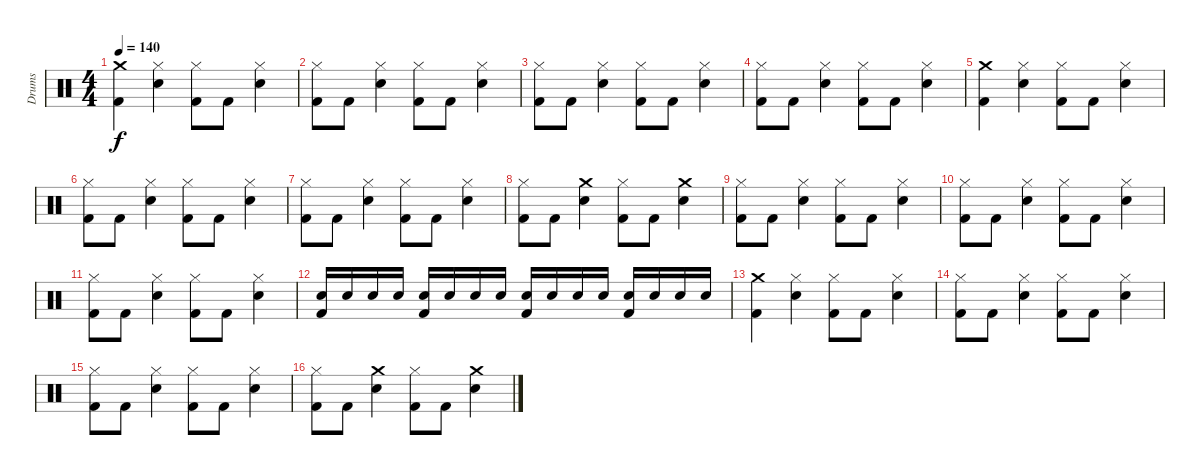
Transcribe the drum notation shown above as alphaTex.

\track ("Drums" "Drums") {instrument percussion}
\staff {score}
\articulation defaults
\ts (4 4)
\tempo 140
\clef neutral
\ks c
("Kick (hit) 2" "Crash medium (hit)").4{dy f} ("Hi-Hat (closed)" "Snare (hit) 2").4 ("Kick (hit) 2" "Hi-Hat (closed)").8 "Kick (hit) 2".8 ("Snare (hit) 2" "Hi-Hat (closed)").4 |
("Kick (hit) 2" "Hi-Hat (closed)").8 "Kick (hit) 2".8 ("Snare (hit) 2" "Hi-Hat (closed)").4 ("Kick (hit) 2" "Hi-Hat (closed)").8 "Kick (hit) 2".8 ("Snare (hit) 2" "Hi-Hat (closed)").4 |
("Kick (hit) 2" "Hi-Hat (closed)").8 "Kick (hit) 2".8 ("Snare (hit) 2" "Hi-Hat (closed)").4 ("Kick (hit) 2" "Hi-Hat (closed)").8 "Kick (hit) 2".8 ("Snare (hit) 2" "Hi-Hat (closed)").4 |
("Kick (hit) 2" "Hi-Hat (closed)").8 "Kick (hit) 2".8 ("Snare (hit) 2" "Hi-Hat (closed)").4 ("Kick (hit) 2" "Hi-Hat (closed)").8 "Kick (hit) 2".8 ("Snare (hit) 2" "Hi-Hat (closed)").4 |
("Kick (hit) 2" "Crash medium (hit)").4 ("Hi-Hat (closed)" "Snare (hit) 2").4 ("Kick (hit) 2" "Hi-Hat (closed)").8 "Kick (hit) 2".8 ("Snare (hit) 2" "Hi-Hat (closed)").4 |
("Kick (hit) 2" "Hi-Hat (closed)").8 "Kick (hit) 2".8 ("Snare (hit) 2" "Hi-Hat (closed)").4 ("Kick (hit) 2" "Hi-Hat (closed)").8 "Kick (hit) 2".8 ("Snare (hit) 2" "Hi-Hat (closed)").4 |
("Kick (hit) 2" "Hi-Hat (closed)").8 "Kick (hit) 2".8 ("Snare (hit) 2" "Hi-Hat (closed)").4 ("Kick (hit) 2" "Hi-Hat (closed)").8 "Kick (hit) 2".8 ("Snare (hit) 2" "Hi-Hat (closed)").4 |
("Hi-Hat (closed)" "Kick (hit) 2").8 "Kick (hit) 2".8 ("Snare (hit) 2" "Crash medium (hit)").4 ("Hi-Hat (closed)" "Kick (hit) 2").8 "Kick (hit) 2".8 ("Snare (hit) 2" "Crash medium (hit)").4 |
("Kick (hit) 2" "Hi-Hat (closed)").8 "Kick (hit) 2".8 ("Snare (hit) 2" "Hi-Hat (closed)").4 ("Kick (hit) 2" "Hi-Hat (closed)").8 "Kick (hit) 2".8 ("Snare (hit) 2" "Hi-Hat (closed)").4 |
("Kick (hit) 2" "Hi-Hat (closed)").8 "Kick (hit) 2".8 ("Snare (hit) 2" "Hi-Hat (closed)").4 ("Kick (hit) 2" "Hi-Hat (closed)").8 "Kick (hit) 2".8 ("Snare (hit) 2" "Hi-Hat (closed)").4 |
("Kick (hit) 2" "Hi-Hat (closed)").8 "Kick (hit) 2".8 ("Snare (hit) 2" "Hi-Hat (closed)").4 ("Kick (hit) 2" "Hi-Hat (closed)").8 "Kick (hit) 2".8 ("Snare (hit) 2" "Hi-Hat (closed)").4 |
("Snare (hit) 2" "Kick (hit) 2").16 "Snare (hit) 2".16 "Snare (hit) 2".16 "Snare (hit) 2".16 ("Snare (hit) 2" "Kick (hit) 2").16 "Snare (hit) 2".16 "Snare (hit) 2".16 "Snare (hit) 2".16 ("Snare (hit) 2" "Kick (hit) 2").16 "Snare (hit) 2".16 "Snare (hit) 2".16 "Snare (hit) 2".16 ("Snare (hit) 2" "Kick (hit) 2").16 "Snare (hit) 2".16 "Snare (hit) 2".16 "Snare (hit) 2".16 |
("Kick (hit) 2" "Crash medium (hit)").4 ("Hi-Hat (closed)" "Snare (hit) 2").4 ("Kick (hit) 2" "Hi-Hat (closed)").8 "Kick (hit) 2".8 ("Snare (hit) 2" "Hi-Hat (closed)").4 |
("Kick (hit) 2" "Hi-Hat (closed)").8 "Kick (hit) 2".8 ("Snare (hit) 2" "Hi-Hat (closed)").4 ("Kick (hit) 2" "Hi-Hat (closed)").8 "Kick (hit) 2".8 ("Snare (hit) 2" "Hi-Hat (closed)").4 |
("Kick (hit) 2" "Hi-Hat (closed)").8 "Kick (hit) 2".8 ("Snare (hit) 2" "Hi-Hat (closed)").4 ("Kick (hit) 2" "Hi-Hat (closed)").8 "Kick (hit) 2".8 ("Snare (hit) 2" "Hi-Hat (closed)").4 |
("Kick (hit) 2" "Hi-Hat (closed)").8 "Kick (hit) 2".8 ("Crash medium (hit)" "Snare (hit) 2").4 ("Kick (hit) 2" "Hi-Hat (closed)").8 "Kick (hit) 2".8 ("Crash medium (hit)" "Snare (hit) 2").4
